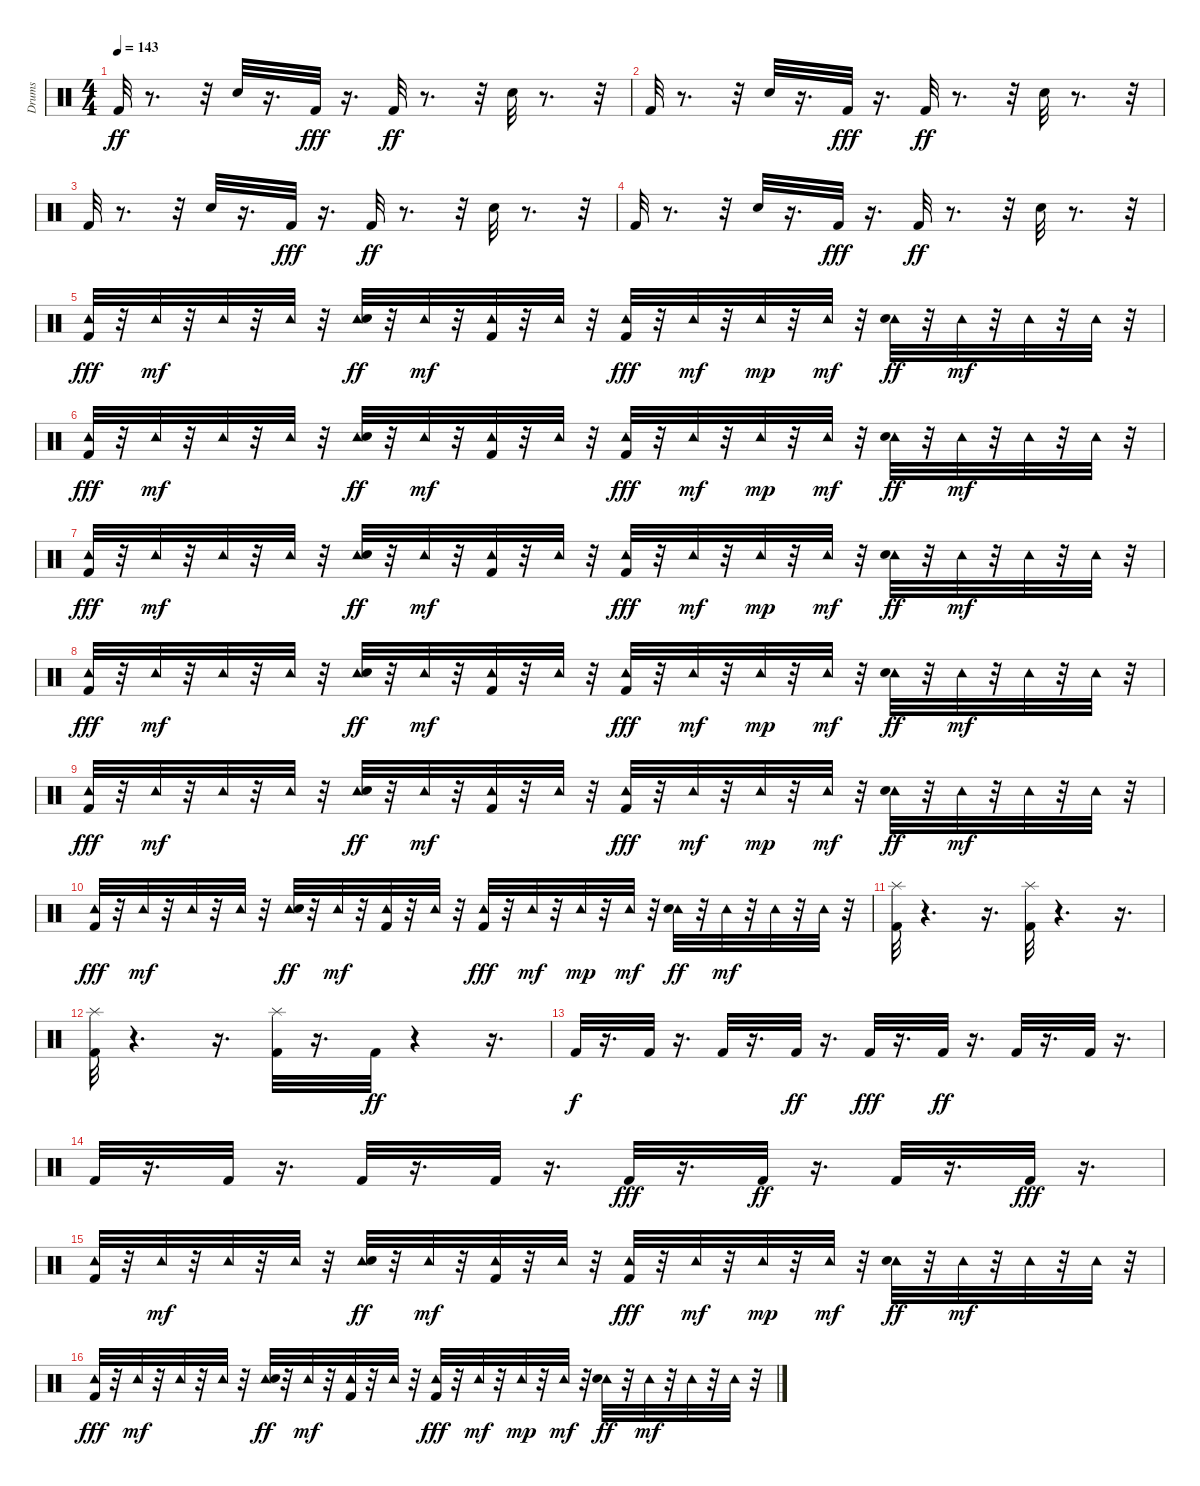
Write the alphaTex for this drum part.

\track ("Drums" "Drums") {instrument percussion}
\staff {score}
\articulation defaults
\ts (4 4)
\tempo 143
\clef neutral
\ks c "Kick (hit) 2".32{dy ff}
r.8{d} r.32 "Snare (hit) 2".32 r.16{d} "Kick (hit) 2".32{dy fff} r.16{d} "Kick (hit) 2".32{dy ff} r.8{d} r.32 "Snare (hit) 2".32 r.8{d} r.32 |
"Kick (hit) 2".32 r.8{d} r.32 "Snare (hit) 2".32 r.16{d} "Kick (hit) 2".32{dy fff} r.16{d} "Kick (hit) 2".32{dy ff} r.8{d} r.32 "Snare (hit) 2".32 r.8{d} r.32 |
"Kick (hit) 2".32 r.8{d} r.32 "Snare (hit) 2".32 r.16{d} "Kick (hit) 2".32{dy fff} r.16{d} "Kick (hit) 2".32{dy ff} r.8{d} r.32 "Snare (hit) 2".32 r.8{d} r.32 |
"Kick (hit) 2".32 r.8{d} r.32 "Snare (hit) 2".32 r.16{d} "Kick (hit) 2".32{dy fff} r.16{d} "Kick (hit) 2".32{dy ff} r.8{d} r.32 "Snare (hit) 2".32 r.8{d} r.32 |
("Kick (hit) 2" "Tambourine (hit)").32{dy fff} r.32 "Tambourine (hit)".32{dy mf} r.32 "Tambourine (hit)".32 r.32 "Tambourine (hit)".32 r.32 ("Tambourine (hit)" "Snare (hit) 2").32{dy ff} r.32 "Tambourine (hit)".32{dy mf} r.32 ("Kick (hit) 2" "Tambourine (hit)").32 r.32 "Tambourine (hit)".32 r.32 ("Kick (hit) 2" "Tambourine (hit)").32{dy fff} r.32 "Tambourine (hit)".32{dy mf} r.32 "Tambourine (hit)".32{dy mp} r.32 "Tambourine (hit)".32{dy mf} r.32 ("Tambourine (hit)" "Snare (hit) 2").32{dy ff} r.32 "Tambourine (hit)".32{dy mf} r.32 "Tambourine (hit)".32 r.32 "Tambourine (hit)".32 r.32 |
("Kick (hit) 2" "Tambourine (hit)").32{dy fff} r.32 "Tambourine (hit)".32{dy mf} r.32 "Tambourine (hit)".32 r.32 "Tambourine (hit)".32 r.32 ("Tambourine (hit)" "Snare (hit) 2").32{dy ff} r.32 "Tambourine (hit)".32{dy mf} r.32 ("Kick (hit) 2" "Tambourine (hit)").32 r.32 "Tambourine (hit)".32 r.32 ("Kick (hit) 2" "Tambourine (hit)").32{dy fff} r.32 "Tambourine (hit)".32{dy mf} r.32 "Tambourine (hit)".32{dy mp} r.32 "Tambourine (hit)".32{dy mf} r.32 ("Tambourine (hit)" "Snare (hit) 2").32{dy ff} r.32 "Tambourine (hit)".32{dy mf} r.32 "Tambourine (hit)".32 r.32 "Tambourine (hit)".32 r.32 |
("Kick (hit) 2" "Tambourine (hit)").32{dy fff} r.32 "Tambourine (hit)".32{dy mf} r.32 "Tambourine (hit)".32 r.32 "Tambourine (hit)".32 r.32 ("Tambourine (hit)" "Snare (hit) 2").32{dy ff} r.32 "Tambourine (hit)".32{dy mf} r.32 ("Kick (hit) 2" "Tambourine (hit)").32 r.32 "Tambourine (hit)".32 r.32 ("Kick (hit) 2" "Tambourine (hit)").32{dy fff} r.32 "Tambourine (hit)".32{dy mf} r.32 "Tambourine (hit)".32{dy mp} r.32 "Tambourine (hit)".32{dy mf} r.32 ("Tambourine (hit)" "Snare (hit) 2").32{dy ff} r.32 "Tambourine (hit)".32{dy mf} r.32 "Tambourine (hit)".32 r.32 "Tambourine (hit)".32 r.32 |
("Kick (hit) 2" "Tambourine (hit)").32{dy fff} r.32 "Tambourine (hit)".32{dy mf} r.32 "Tambourine (hit)".32 r.32 "Tambourine (hit)".32 r.32 ("Tambourine (hit)" "Snare (hit) 2").32{dy ff} r.32 "Tambourine (hit)".32{dy mf} r.32 ("Kick (hit) 2" "Tambourine (hit)").32 r.32 "Tambourine (hit)".32 r.32 ("Kick (hit) 2" "Tambourine (hit)").32{dy fff} r.32 "Tambourine (hit)".32{dy mf} r.32 "Tambourine (hit)".32{dy mp} r.32 "Tambourine (hit)".32{dy mf} r.32 ("Tambourine (hit)" "Snare (hit) 2").32{dy ff} r.32 "Tambourine (hit)".32{dy mf} r.32 "Tambourine (hit)".32 r.32 "Tambourine (hit)".32 r.32 |
("Kick (hit) 2" "Tambourine (hit)").32{dy fff} r.32 "Tambourine (hit)".32{dy mf} r.32 "Tambourine (hit)".32 r.32 "Tambourine (hit)".32 r.32 ("Tambourine (hit)" "Snare (hit) 2").32{dy ff} r.32 "Tambourine (hit)".32{dy mf} r.32 ("Kick (hit) 2" "Tambourine (hit)").32 r.32 "Tambourine (hit)".32 r.32 ("Kick (hit) 2" "Tambourine (hit)").32{dy fff} r.32 "Tambourine (hit)".32{dy mf} r.32 "Tambourine (hit)".32{dy mp} r.32 "Tambourine (hit)".32{dy mf} r.32 ("Tambourine (hit)" "Snare (hit) 2").32{dy ff} r.32 "Tambourine (hit)".32{dy mf} r.32 "Tambourine (hit)".32 r.32 "Tambourine (hit)".32 r.32 |
("Kick (hit) 2" "Tambourine (hit)").32{dy fff} r.32 "Tambourine (hit)".32{dy mf} r.32 "Tambourine (hit)".32 r.32 "Tambourine (hit)".32 r.32 ("Tambourine (hit)" "Snare (hit) 2").32{dy ff} r.32 "Tambourine (hit)".32{dy mf} r.32 ("Kick (hit) 2" "Tambourine (hit)").32 r.32 "Tambourine (hit)".32 r.32 ("Kick (hit) 2" "Tambourine (hit)").32{dy fff} r.32 "Tambourine (hit)".32{dy mf} r.32 "Tambourine (hit)".32{dy mp} r.32 "Tambourine (hit)".32{dy mf} r.32 ("Tambourine (hit)" "Snare (hit) 2").32{dy ff} r.32 "Tambourine (hit)".32{dy mf} r.32 "Tambourine (hit)".32 r.32 "Tambourine (hit)".32 r.32 |
("Splash (hit)" "Kick (hit) 2").32 r.4{d} r.16{d} ("Splash (hit)" "Kick (hit) 2").32 r.4{d} r.16{d} |
("Splash (hit)" "Kick (hit) 2").32 r.4{d} r.16{d} ("Splash (hit)" "Kick (hit) 2").32 r.16{d} "Kick (hit) 2".32{dy ff} r.4 r.16{d} |
"Kick (hit) 2".32{dy f} r.16{d} "Kick (hit) 2".32 r.16{d} "Kick (hit) 2".32 r.16{d} "Kick (hit) 2".32{dy ff} r.16{d} "Kick (hit) 2".32{dy fff} r.16{d} "Kick (hit) 2".32{dy ff} r.16{d} "Kick (hit) 2".32 r.16{d} "Kick (hit) 2".32 r.16{d} |
"Kick (hit) 2".32 r.16{d} "Kick (hit) 2".32 r.16{d} "Kick (hit) 2".32 r.16{d} "Kick (hit) 2".32 r.16{d} "Kick (hit) 2".32{dy fff} r.16{d} "Kick (hit) 2".32{dy ff} r.16{d} "Kick (hit) 2".32 r.16{d} "Kick (hit) 2".32{dy fff} r.16{d} |
("Kick (hit) 2" "Tambourine (hit)").32 r.32 "Tambourine (hit)".32{dy mf} r.32 "Tambourine (hit)".32 r.32 "Tambourine (hit)".32 r.32 ("Tambourine (hit)" "Snare (hit) 2").32{dy ff} r.32 "Tambourine (hit)".32{dy mf} r.32 ("Kick (hit) 2" "Tambourine (hit)").32 r.32 "Tambourine (hit)".32 r.32 ("Kick (hit) 2" "Tambourine (hit)").32{dy fff} r.32 "Tambourine (hit)".32{dy mf} r.32 "Tambourine (hit)".32{dy mp} r.32 "Tambourine (hit)".32{dy mf} r.32 ("Tambourine (hit)" "Snare (hit) 2").32{dy ff} r.32 "Tambourine (hit)".32{dy mf} r.32 "Tambourine (hit)".32 r.32 "Tambourine (hit)".32 r.32 |
("Kick (hit) 2" "Tambourine (hit)").32{dy fff} r.32 "Tambourine (hit)".32{dy mf} r.32 "Tambourine (hit)".32 r.32 "Tambourine (hit)".32 r.32 ("Tambourine (hit)" "Snare (hit) 2").32{dy ff} r.32 "Tambourine (hit)".32{dy mf} r.32 ("Kick (hit) 2" "Tambourine (hit)").32 r.32 "Tambourine (hit)".32 r.32 ("Kick (hit) 2" "Tambourine (hit)").32{dy fff} r.32 "Tambourine (hit)".32{dy mf} r.32 "Tambourine (hit)".32{dy mp} r.32 "Tambourine (hit)".32{dy mf} r.32 ("Tambourine (hit)" "Snare (hit) 2").32{dy ff} r.32 "Tambourine (hit)".32{dy mf} r.32 "Tambourine (hit)".32 r.32 "Tambourine (hit)".32 r.32
